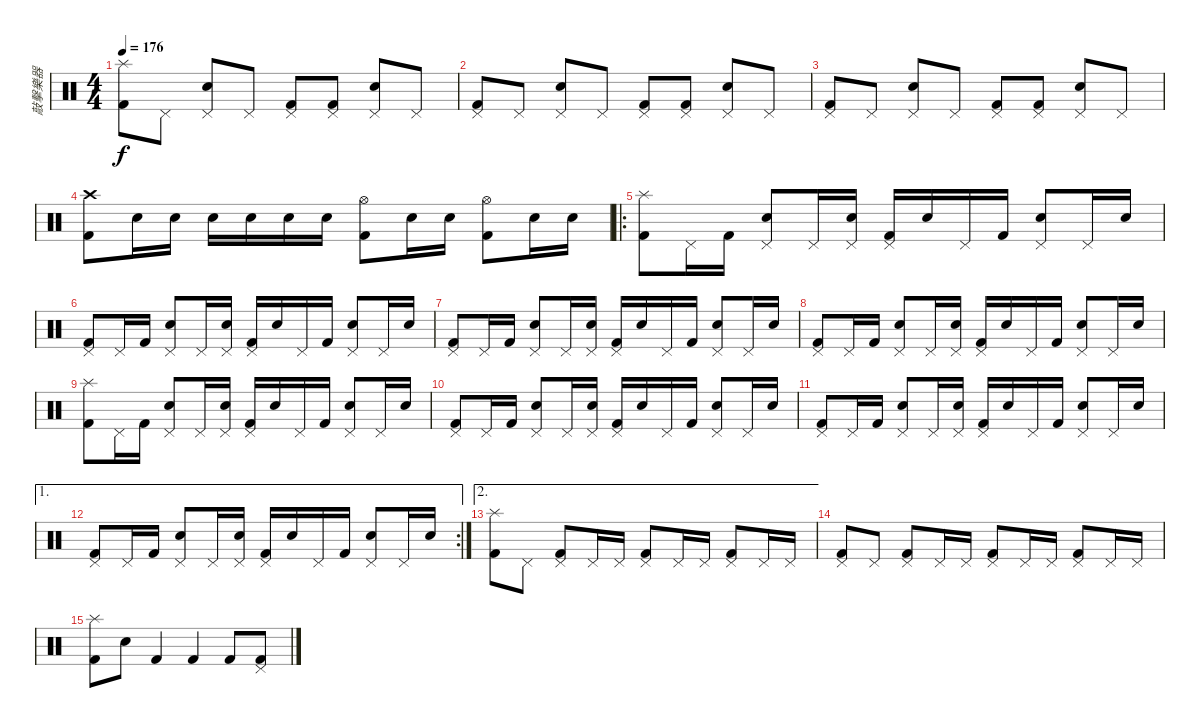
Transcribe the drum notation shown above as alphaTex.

\track ("敲擊樂器" "敲擊樂器") {instrument percussion}
\staff {score}
\articulation defaults
\ts (4 4)
\tempo 176
\clef neutral
\ks c
("Splash (hit)" "Kick (hit) 2").8{dy f} "Pedal Hi-Hat (hit)".8 ("Snare (hit) 2" "Pedal Hi-Hat (hit)").8 "Pedal Hi-Hat (hit)".8 ("Pedal Hi-Hat (hit)" "Kick (hit) 2").8 ("Kick (hit) 2" "Pedal Hi-Hat (hit)").8 ("Pedal Hi-Hat (hit)" "Snare (hit) 2").8 "Pedal Hi-Hat (hit)".8 |
("Pedal Hi-Hat (hit)" "Kick (hit) 2").8 "Pedal Hi-Hat (hit)".8 ("Snare (hit) 2" "Pedal Hi-Hat (hit)").8 "Pedal Hi-Hat (hit)".8 ("Pedal Hi-Hat (hit)" "Kick (hit) 2").8 ("Kick (hit) 2" "Pedal Hi-Hat (hit)").8 ("Pedal Hi-Hat (hit)" "Snare (hit) 2").8 "Pedal Hi-Hat (hit)".8 |
("Pedal Hi-Hat (hit)" "Kick (hit) 2").8 "Pedal Hi-Hat (hit)".8 ("Snare (hit) 2" "Pedal Hi-Hat (hit)").8 "Pedal Hi-Hat (hit)".8 ("Pedal Hi-Hat (hit)" "Kick (hit) 2").8 ("Kick (hit) 2" "Pedal Hi-Hat (hit)").8 ("Pedal Hi-Hat (hit)" "Snare (hit) 2").8 "Pedal Hi-Hat (hit)".8 |
("Crash high (hit)" "Kick (hit) 2").8 "Snare (hit) 2".16 "Snare (hit) 2".16 "Snare (hit) 2".16 "Snare (hit) 2".16 "Snare (hit) 2".16 "Snare (hit) 2".16 ("Hi-Hat (open)" "Kick (hit) 2").8 "Snare (hit) 2".16 "Snare (hit) 2".16 ("Hi-Hat (open)" "Kick (hit) 2").8 "Snare (hit) 2".16 "Snare (hit) 2".16 |
\ro
("Splash (hit)" "Kick (hit) 2").8 "Pedal Hi-Hat (hit)".16 "Kick (hit) 2".16 ("Pedal Hi-Hat (hit)" "Snare (hit) 2").8 "Pedal Hi-Hat (hit)".16 ("Pedal Hi-Hat (hit)" "Snare (hit) 2").16 ("Pedal Hi-Hat (hit)" "Kick (hit) 2").16 "Snare (hit) 2".16 "Pedal Hi-Hat (hit)".16 "Kick (hit) 2".16 ("Pedal Hi-Hat (hit)" "Snare (hit) 2").8 "Pedal Hi-Hat (hit)".16 "Snare (hit) 2".16 |
("Pedal Hi-Hat (hit)" "Kick (hit) 2").8 "Pedal Hi-Hat (hit)".16 "Kick (hit) 2".16 ("Pedal Hi-Hat (hit)" "Snare (hit) 2").8 "Pedal Hi-Hat (hit)".16 ("Pedal Hi-Hat (hit)" "Snare (hit) 2").16 ("Pedal Hi-Hat (hit)" "Kick (hit) 2").16 "Snare (hit) 2".16 "Pedal Hi-Hat (hit)".16 "Kick (hit) 2".16 ("Pedal Hi-Hat (hit)" "Snare (hit) 2").8 "Pedal Hi-Hat (hit)".16 "Snare (hit) 2".16 |
("Pedal Hi-Hat (hit)" "Kick (hit) 2").8 "Pedal Hi-Hat (hit)".16 "Kick (hit) 2".16 ("Pedal Hi-Hat (hit)" "Snare (hit) 2").8 "Pedal Hi-Hat (hit)".16 ("Pedal Hi-Hat (hit)" "Snare (hit) 2").16 ("Pedal Hi-Hat (hit)" "Kick (hit) 2").16 "Snare (hit) 2".16 "Pedal Hi-Hat (hit)".16 "Kick (hit) 2".16 ("Pedal Hi-Hat (hit)" "Snare (hit) 2").8 "Pedal Hi-Hat (hit)".16 "Snare (hit) 2".16 |
("Pedal Hi-Hat (hit)" "Kick (hit) 2").8 "Pedal Hi-Hat (hit)".16 "Kick (hit) 2".16 ("Pedal Hi-Hat (hit)" "Snare (hit) 2").8 "Pedal Hi-Hat (hit)".16 ("Pedal Hi-Hat (hit)" "Snare (hit) 2").16 ("Pedal Hi-Hat (hit)" "Kick (hit) 2").16 "Snare (hit) 2".16 "Pedal Hi-Hat (hit)".16 "Kick (hit) 2".16 ("Pedal Hi-Hat (hit)" "Snare (hit) 2").8 "Pedal Hi-Hat (hit)".16 "Snare (hit) 2".16 |
("Splash (hit)" "Kick (hit) 2").8 "Pedal Hi-Hat (hit)".16 "Kick (hit) 2".16 ("Pedal Hi-Hat (hit)" "Snare (hit) 2").8 "Pedal Hi-Hat (hit)".16 ("Pedal Hi-Hat (hit)" "Snare (hit) 2").16 ("Pedal Hi-Hat (hit)" "Kick (hit) 2").16 "Snare (hit) 2".16 "Pedal Hi-Hat (hit)".16 "Kick (hit) 2".16 ("Pedal Hi-Hat (hit)" "Snare (hit) 2").8 "Pedal Hi-Hat (hit)".16 "Snare (hit) 2".16 |
("Pedal Hi-Hat (hit)" "Kick (hit) 2").8 "Pedal Hi-Hat (hit)".16 "Kick (hit) 2".16 ("Pedal Hi-Hat (hit)" "Snare (hit) 2").8 "Pedal Hi-Hat (hit)".16 ("Pedal Hi-Hat (hit)" "Snare (hit) 2").16 ("Pedal Hi-Hat (hit)" "Kick (hit) 2").16 "Snare (hit) 2".16 "Pedal Hi-Hat (hit)".16 "Kick (hit) 2".16 ("Pedal Hi-Hat (hit)" "Snare (hit) 2").8 "Pedal Hi-Hat (hit)".16 "Snare (hit) 2".16 |
("Pedal Hi-Hat (hit)" "Kick (hit) 2").8 "Pedal Hi-Hat (hit)".16 "Kick (hit) 2".16 ("Pedal Hi-Hat (hit)" "Snare (hit) 2").8 "Pedal Hi-Hat (hit)".16 ("Pedal Hi-Hat (hit)" "Snare (hit) 2").16 ("Pedal Hi-Hat (hit)" "Kick (hit) 2").16 "Snare (hit) 2".16 "Pedal Hi-Hat (hit)".16 "Kick (hit) 2".16 ("Pedal Hi-Hat (hit)" "Snare (hit) 2").8 "Pedal Hi-Hat (hit)".16 "Snare (hit) 2".16 |
\ae 1
\rc 2
("Pedal Hi-Hat (hit)" "Kick (hit) 2").8 "Pedal Hi-Hat (hit)".16 "Kick (hit) 2".16 ("Pedal Hi-Hat (hit)" "Snare (hit) 2").8 "Pedal Hi-Hat (hit)".16 ("Pedal Hi-Hat (hit)" "Snare (hit) 2").16 ("Pedal Hi-Hat (hit)" "Kick (hit) 2").16 "Snare (hit) 2".16 "Pedal Hi-Hat (hit)".16 "Kick (hit) 2".16 ("Pedal Hi-Hat (hit)" "Snare (hit) 2").8 "Pedal Hi-Hat (hit)".16 "Snare (hit) 2".16 |
\ae 2
("Splash (hit)" "Kick (hit) 2").8 "Pedal Hi-Hat (hit)".8 ("Kick (hit) 2" "Pedal Hi-Hat (hit)").8 "Pedal Hi-Hat (hit)".16 "Pedal Hi-Hat (hit)".16 ("Kick (hit) 2" "Pedal Hi-Hat (hit)").8 "Pedal Hi-Hat (hit)".16 "Pedal Hi-Hat (hit)".16 ("Kick (hit) 2" "Pedal Hi-Hat (hit)").8 "Pedal Hi-Hat (hit)".16 "Pedal Hi-Hat (hit)".16 |
("Pedal Hi-Hat (hit)" "Kick (hit) 2").8 "Pedal Hi-Hat (hit)".8 ("Kick (hit) 2" "Pedal Hi-Hat (hit)").8 "Pedal Hi-Hat (hit)".16 "Pedal Hi-Hat (hit)".16 ("Kick (hit) 2" "Pedal Hi-Hat (hit)").8 "Pedal Hi-Hat (hit)".16 "Pedal Hi-Hat (hit)".16 ("Kick (hit) 2" "Pedal Hi-Hat (hit)").8 "Pedal Hi-Hat (hit)".16 "Pedal Hi-Hat (hit)".16 |
("Splash (hit)" "Kick (hit) 2").8 "Snare (hit) 2".8 "Kick (hit) 2".4 "Kick (hit) 2".4 "Kick (hit) 2".8 ("Pedal Hi-Hat (hit)" "Kick (hit) 2").8
